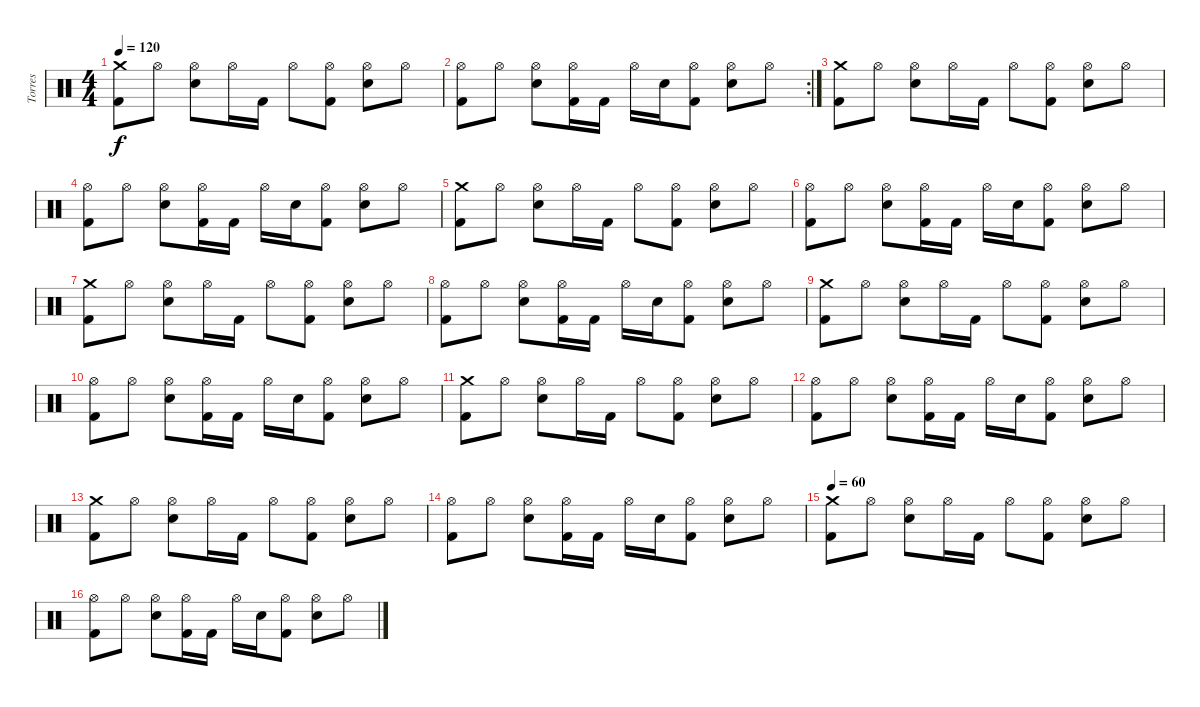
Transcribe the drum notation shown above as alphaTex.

\track ("Torres" "Torres") {instrument percussion}
\staff {score}
\articulation defaults
\ts (4 4)
\tempo 120
\clef neutral
\ks c
("Crash medium (hit)" "Kick (hit) 2").8{dy f} "Hi-Hat (open)".8 ("Hi-Hat (open)" "Electric Snare (hit)").8 "Hi-Hat (open)".16 "Kick (hit) 2".16 "Hi-Hat (open)".8 ("Hi-Hat (open)" "Kick (hit) 2").8 ("Hi-Hat (open)" "Electric Snare (hit)").8 "Hi-Hat (open)".8 |
\rc 2
("Hi-Hat (open)" "Kick (hit) 2").8 "Hi-Hat (open)".8 ("Hi-Hat (open)" "Electric Snare (hit)").8 ("Hi-Hat (open)" "Kick (hit) 2").16 "Kick (hit) 2".16 "Hi-Hat (open)".16 "Electric Snare (hit)".16 ("Hi-Hat (open)" "Kick (hit) 2").8 ("Hi-Hat (open)" "Electric Snare (hit)").8 "Hi-Hat (open)".8 |
("Crash medium (hit)" "Kick (hit) 2").8 "Hi-Hat (open)".8 ("Hi-Hat (open)" "Electric Snare (hit)").8 "Hi-Hat (open)".16 "Kick (hit) 2".16 "Hi-Hat (open)".8 ("Hi-Hat (open)" "Kick (hit) 2").8 ("Hi-Hat (open)" "Electric Snare (hit)").8 "Hi-Hat (open)".8 |
("Hi-Hat (open)" "Kick (hit) 2").8 "Hi-Hat (open)".8 ("Hi-Hat (open)" "Electric Snare (hit)").8 ("Hi-Hat (open)" "Kick (hit) 2").16 "Kick (hit) 2".16 "Hi-Hat (open)".16 "Electric Snare (hit)".16 ("Hi-Hat (open)" "Kick (hit) 2").8 ("Hi-Hat (open)" "Electric Snare (hit)").8 "Hi-Hat (open)".8 |
("Crash medium (hit)" "Kick (hit) 2").8 "Hi-Hat (open)".8 ("Hi-Hat (open)" "Electric Snare (hit)").8 "Hi-Hat (open)".16 "Kick (hit) 2".16 "Hi-Hat (open)".8 ("Hi-Hat (open)" "Kick (hit) 2").8 ("Hi-Hat (open)" "Electric Snare (hit)").8 "Hi-Hat (open)".8 |
("Hi-Hat (open)" "Kick (hit) 2").8 "Hi-Hat (open)".8 ("Hi-Hat (open)" "Electric Snare (hit)").8 ("Hi-Hat (open)" "Kick (hit) 2").16 "Kick (hit) 2".16 "Hi-Hat (open)".16 "Electric Snare (hit)".16 ("Hi-Hat (open)" "Kick (hit) 2").8 ("Hi-Hat (open)" "Electric Snare (hit)").8 "Hi-Hat (open)".8 |
("Crash medium (hit)" "Kick (hit) 2").8 "Hi-Hat (open)".8 ("Hi-Hat (open)" "Electric Snare (hit)").8 "Hi-Hat (open)".16 "Kick (hit) 2".16 "Hi-Hat (open)".8 ("Hi-Hat (open)" "Kick (hit) 2").8 ("Hi-Hat (open)" "Electric Snare (hit)").8 "Hi-Hat (open)".8 |
("Hi-Hat (open)" "Kick (hit) 2").8 "Hi-Hat (open)".8 ("Hi-Hat (open)" "Electric Snare (hit)").8 ("Hi-Hat (open)" "Kick (hit) 2").16 "Kick (hit) 2".16 "Hi-Hat (open)".16 "Electric Snare (hit)".16 ("Hi-Hat (open)" "Kick (hit) 2").8 ("Hi-Hat (open)" "Electric Snare (hit)").8 "Hi-Hat (open)".8 |
("Crash medium (hit)" "Kick (hit) 2").8 "Hi-Hat (open)".8 ("Hi-Hat (open)" "Electric Snare (hit)").8 "Hi-Hat (open)".16 "Kick (hit) 2".16 "Hi-Hat (open)".8 ("Hi-Hat (open)" "Kick (hit) 2").8 ("Hi-Hat (open)" "Electric Snare (hit)").8 "Hi-Hat (open)".8 |
("Hi-Hat (open)" "Kick (hit) 2").8 "Hi-Hat (open)".8 ("Hi-Hat (open)" "Electric Snare (hit)").8 ("Hi-Hat (open)" "Kick (hit) 2").16 "Kick (hit) 2".16 "Hi-Hat (open)".16 "Electric Snare (hit)".16 ("Hi-Hat (open)" "Kick (hit) 2").8 ("Hi-Hat (open)" "Electric Snare (hit)").8 "Hi-Hat (open)".8 |
("Crash medium (hit)" "Kick (hit) 2").8 "Hi-Hat (open)".8 ("Hi-Hat (open)" "Electric Snare (hit)").8 "Hi-Hat (open)".16 "Kick (hit) 2".16 "Hi-Hat (open)".8 ("Hi-Hat (open)" "Kick (hit) 2").8 ("Hi-Hat (open)" "Electric Snare (hit)").8 "Hi-Hat (open)".8 |
("Hi-Hat (open)" "Kick (hit) 2").8 "Hi-Hat (open)".8 ("Hi-Hat (open)" "Electric Snare (hit)").8 ("Hi-Hat (open)" "Kick (hit) 2").16 "Kick (hit) 2".16 "Hi-Hat (open)".16 "Electric Snare (hit)".16 ("Hi-Hat (open)" "Kick (hit) 2").8 ("Hi-Hat (open)" "Electric Snare (hit)").8 "Hi-Hat (open)".8 |
("Crash medium (hit)" "Kick (hit) 2").8 "Hi-Hat (open)".8 ("Hi-Hat (open)" "Electric Snare (hit)").8 "Hi-Hat (open)".16 "Kick (hit) 2".16 "Hi-Hat (open)".8 ("Hi-Hat (open)" "Kick (hit) 2").8 ("Hi-Hat (open)" "Electric Snare (hit)").8 "Hi-Hat (open)".8 |
("Hi-Hat (open)" "Kick (hit) 2").8 "Hi-Hat (open)".8 ("Hi-Hat (open)" "Electric Snare (hit)").8 ("Hi-Hat (open)" "Kick (hit) 2").16 "Kick (hit) 2".16 "Hi-Hat (open)".16 "Electric Snare (hit)".16 ("Hi-Hat (open)" "Kick (hit) 2").8 ("Hi-Hat (open)" "Electric Snare (hit)").8 "Hi-Hat (open)".8 |
\tempo 60
("Crash medium (hit)" "Kick (hit) 2").8 "Hi-Hat (open)".8 ("Hi-Hat (open)" "Electric Snare (hit)").8 "Hi-Hat (open)".16 "Kick (hit) 2".16 "Hi-Hat (open)".8 ("Hi-Hat (open)" "Kick (hit) 2").8 ("Hi-Hat (open)" "Electric Snare (hit)").8 "Hi-Hat (open)".8 |
("Hi-Hat (open)" "Kick (hit) 2").8 "Hi-Hat (open)".8 ("Hi-Hat (open)" "Electric Snare (hit)").8 ("Hi-Hat (open)" "Kick (hit) 2").16 "Kick (hit) 2".16 "Hi-Hat (open)".16 "Electric Snare (hit)".16 ("Hi-Hat (open)" "Kick (hit) 2").8 ("Hi-Hat (open)" "Electric Snare (hit)").8 "Hi-Hat (open)".8
